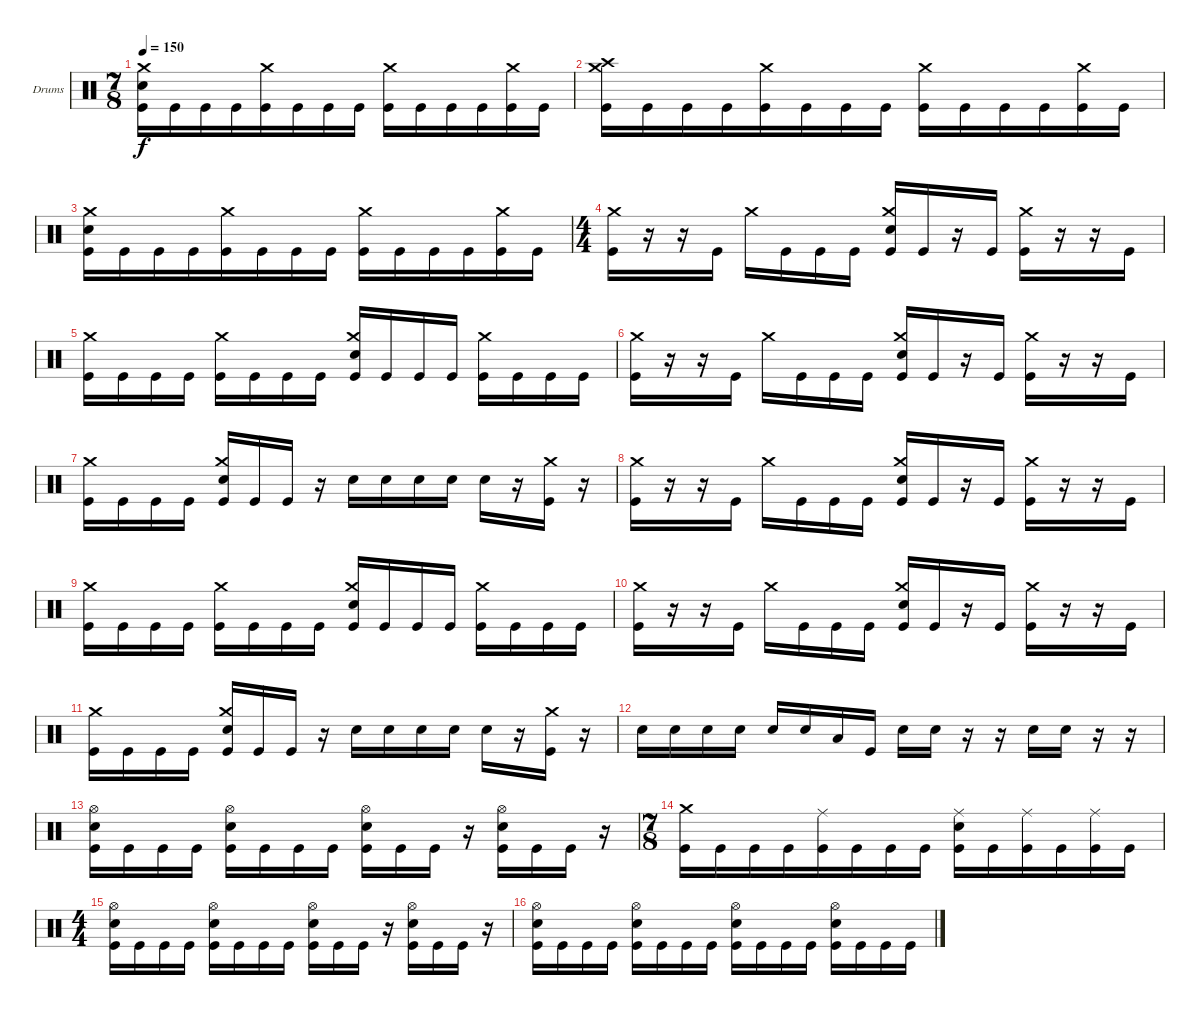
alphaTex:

\defaultSystemsLayout 4
\bracketExtendMode groupsimilarinstruments
\firstSystemTrackNameOrientation horizontal
\otherSystemsTrackNameOrientation horizontal
\track ("Moe Carlson" "Drums") {instrument percussion}
\staff {score}
\articulation defaults
\ts (7 8)
\tempo 150
\clef neutral
\ks c
("Kick (hit)" "Crash medium (hit)" "Snare (hit) 2").16{dy f} "Kick (hit)".16 "Kick (hit)".16 "Kick (hit)".16 ("Kick (hit)" "Crash medium (hit)").16 "Kick (hit)".16 "Kick (hit)".16 "Kick (hit)".16 ("Kick (hit)" "Crash medium (hit)").16 "Kick (hit)".16 "Kick (hit)".16 "Kick (hit)".16 ("Kick (hit)" "Crash medium (hit)").16 "Kick (hit)".16 |
("Crash medium (hit)" "Crash high (hit)" "Kick (hit)").16 "Kick (hit)".16 "Kick (hit)".16 "Kick (hit)".16 ("Kick (hit)" "Crash medium (hit)").16 "Kick (hit)".16 "Kick (hit)".16 "Kick (hit)".16 ("Kick (hit)" "Crash medium (hit)").16 "Kick (hit)".16 "Kick (hit)".16 "Kick (hit)".16 ("Kick (hit)" "Crash medium (hit)").16 "Kick (hit)".16 |
("Kick (hit)" "Crash medium (hit)" "Snare (hit) 2").16 "Kick (hit)".16 "Kick (hit)".16 "Kick (hit)".16 ("Kick (hit)" "Crash medium (hit)").16 "Kick (hit)".16 "Kick (hit)".16 "Kick (hit)".16 ("Kick (hit)" "Crash medium (hit)").16 "Kick (hit)".16 "Kick (hit)".16 "Kick (hit)".16 ("Kick (hit)" "Crash medium (hit)").16 "Kick (hit)".16 |
\ts (4 4)
("Kick (hit)" "Crash medium (hit)").16 r.16 r.16 "Kick (hit)".16 "Crash medium (hit)".16 "Kick (hit)".16 "Kick (hit)".16 "Kick (hit)".16 ("Kick (hit)" "Snare (hit) 2" "Crash medium (hit)").16 "Kick (hit)".16 r.16 "Kick (hit)".16 ("Kick (hit)" "Crash medium (hit)").16 r.16 r.16 "Kick (hit)".16 |
("Kick (hit)" "Crash medium (hit)").16 "Kick (hit)".16 "Kick (hit)".16 "Kick (hit)".16 ("Kick (hit)" "Crash medium (hit)").16 "Kick (hit)".16 "Kick (hit)".16 "Kick (hit)".16 ("Kick (hit)" "Crash medium (hit)" "Snare (hit) 2").16 "Kick (hit)".16 "Kick (hit)".16 "Kick (hit)".16 ("Kick (hit)" "Crash medium (hit)").16 "Kick (hit)".16 "Kick (hit)".16 "Kick (hit)".16 |
("Kick (hit)" "Crash medium (hit)").16 r.16 r.16 "Kick (hit)".16 "Crash medium (hit)".16 "Kick (hit)".16 "Kick (hit)".16 "Kick (hit)".16 ("Kick (hit)" "Snare (hit) 2" "Crash medium (hit)").16 "Kick (hit)".16 r.16 "Kick (hit)".16 ("Kick (hit)" "Crash medium (hit)").16 r.16 r.16 "Kick (hit)".16 |
("Crash medium (hit)" "Kick (hit)").16 "Kick (hit)".16 "Kick (hit)".16 "Kick (hit)".16 ("Kick (hit)" "Snare (hit) 2" "Crash medium (hit)").16 "Kick (hit)".16 "Kick (hit)".16 r.16 "Snare (hit) 2".16 "Snare (hit) 2".16 "Snare (hit) 2".16 "Snare (hit) 2".16 "Snare (hit) 2".16 r.16 ("Crash medium (hit)" "Kick (hit)").16 r.16 |
("Kick (hit)" "Crash medium (hit)").16 r.16 r.16 "Kick (hit)".16 "Crash medium (hit)".16 "Kick (hit)".16 "Kick (hit)".16 "Kick (hit)".16 ("Kick (hit)" "Snare (hit) 2" "Crash medium (hit)").16 "Kick (hit)".16 r.16 "Kick (hit)".16 ("Kick (hit)" "Crash medium (hit)").16 r.16 r.16 "Kick (hit)".16 |
("Kick (hit)" "Crash medium (hit)").16 "Kick (hit)".16 "Kick (hit)".16 "Kick (hit)".16 ("Kick (hit)" "Crash medium (hit)").16 "Kick (hit)".16 "Kick (hit)".16 "Kick (hit)".16 ("Kick (hit)" "Crash medium (hit)" "Snare (hit) 2").16 "Kick (hit)".16 "Kick (hit)".16 "Kick (hit)".16 ("Kick (hit)" "Crash medium (hit)").16 "Kick (hit)".16 "Kick (hit)".16 "Kick (hit)".16 |
("Kick (hit)" "Crash medium (hit)").16 r.16 r.16 "Kick (hit)".16 "Crash medium (hit)".16 "Kick (hit)".16 "Kick (hit)".16 "Kick (hit)".16 ("Kick (hit)" "Snare (hit) 2" "Crash medium (hit)").16 "Kick (hit)".16 r.16 "Kick (hit)".16 ("Kick (hit)" "Crash medium (hit)").16 r.16 r.16 "Kick (hit)".16 |
("Crash medium (hit)" "Kick (hit)").16 "Kick (hit)".16 "Kick (hit)".16 "Kick (hit)".16 ("Kick (hit)" "Snare (hit) 2" "Crash medium (hit)").16 "Kick (hit)".16 "Kick (hit)".16 r.16 "Snare (hit) 2".16 "Snare (hit) 2".16 "Snare (hit) 2".16 "Snare (hit) 2".16 "Snare (hit) 2".16 r.16 ("Crash medium (hit)" "Kick (hit)").16 r.16 |
"Snare (hit) 2".16 "Snare (hit) 2".16 "Snare (hit) 2".16 "Snare (hit) 2".16 "Snare (hit) 2".16 "Snare (hit) 2".16 "Low Tom (hit)".16 "Kick (hit)".16 "Snare (hit) 2".16 "Snare (hit) 2".16 r.16 r.16 "Snare (hit) 2".16 "Snare (hit) 2".16 r.16 r.16 |
("Hi-Hat (open)" "Kick (hit)" "Snare (hit) 2").16 "Kick (hit)".16 "Kick (hit)".16 "Kick (hit)".16 ("Kick (hit)" "Snare (hit) 2" "Hi-Hat (open)").16 "Kick (hit)".16 "Kick (hit)".16 "Kick (hit)".16 ("Kick (hit)" "Hi-Hat (open)" "Snare (hit) 2").16 "Kick (hit)".16 "Kick (hit)".16 r.16 ("Kick (hit)" "Snare (hit) 2" "Hi-Hat (open)").16 "Kick (hit)".16 "Kick (hit)".16 r.16 |
\ts (7 8)
("Crash medium (hit)" "Kick (hit)").16 "Kick (hit)".16 "Kick (hit)".16 "Kick (hit)".16 ("Kick (hit)" "Ride (middle)").16 "Kick (hit)".16 "Kick (hit)".16 "Kick (hit)".16 ("Kick (hit)" "Ride (middle)" "Snare (hit) 2").16 "Kick (hit)".16 ("Kick (hit)" "Ride (middle)").16 "Kick (hit)".16 ("Kick (hit)" "Ride (middle)").16 "Kick (hit)".16 |
\ts (4 4)
("Kick (hit)" "Snare (hit) 2" "Hi-Hat (open)").16 "Kick (hit)".16 "Kick (hit)".16 "Kick (hit)".16 ("Kick (hit)" "Hi-Hat (open)" "Snare (hit) 2").16 "Kick (hit)".16 "Kick (hit)".16 "Kick (hit)".16 ("Kick (hit)" "Hi-Hat (open)" "Snare (hit) 2").16 "Kick (hit)".16 "Kick (hit)".16 r.16 ("Kick (hit)" "Snare (hit) 2" "Hi-Hat (open)").16 "Kick (hit)".16 "Kick (hit)".16 r.16 |
("Kick (hit)" "Hi-Hat (open)" "Snare (hit) 2").16 "Kick (hit)".16 "Kick (hit)".16 "Kick (hit)".16 ("Kick (hit)" "Hi-Hat (open)" "Snare (hit) 2").16 "Kick (hit)".16 "Kick (hit)".16 "Kick (hit)".16 ("Kick (hit)" "Hi-Hat (open)" "Snare (hit) 2").16 "Kick (hit)".16 "Kick (hit)".16 "Kick (hit)".16 ("Kick (hit)" "Hi-Hat (open)" "Snare (hit) 2").16 "Kick (hit)".16 "Kick (hit)".16 "Kick (hit)".16
